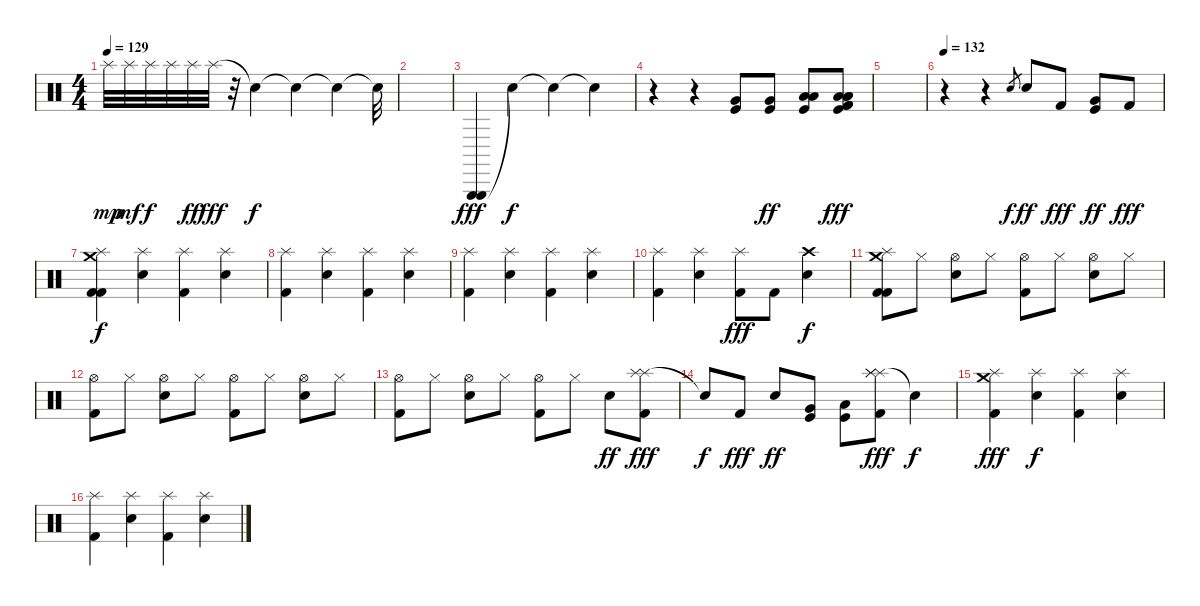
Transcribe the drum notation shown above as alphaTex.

\track "" {instrument percussion}
\staff {score}
\articulation defaults
\ts (4 4)
\tempo 129
\tempo 120
\tempo 129
\clef neutral
\ks c "Splash (hit)".32{dy mp} "Splash (hit)".32{dy mf} "Splash (hit)".32{dy f} "Splash (hit)".32 "Splash (hit)".32{dy ff} "Splash (hit)".32{dy fff}
r.32 "Snare (hit)"{t}.4{dy f} "Snare (hit)"{t}.4 "Snare (hit)"{t}.4 "Snare (hit)"{t}.32 |
|
("Triangle (hit)" "Triangle (hit)").4{dy fff} "Snare (hit)"{t}.4{dy f} "Snare (hit)"{t}.4 "Snare (hit)"{t}.4 |
r.4 r.4 ("Very Low Tom (hit)" "Kick (hit)").8 ("Very Low Tom (hit)" "Kick (hit)").8{dy ff} ("Low Floor Tom (hit)" "Kick (hit)" "Low Floor Tom (hit)").8 ("Low Floor Tom (hit)" "Kick (hit)" "Kick (hit) 2" "Low Floor Tom (hit)" "Low Floor Tom (hit)" "Kick (hit) 2").8{dy fff} |
|
\tempo 132
r.4 r.4 "Electric Snare (hit)".8{gr dy f} "Electric Snare (hit)".8{dy ff} "Kick (hit) 2".8{dy fff} ("Very Low Tom (hit)" "Kick (hit)").8{dy ff} "Kick (hit) 2".8{dy fff} |
("Splash (hit)" "Kick (hit) 2" "Crash medium (hit)" "Kick (hit) 2").4{dy f} ("Splash (hit)" "Electric Snare (hit)").4 ("Splash (hit)" "Kick (hit) 2").4 ("Splash (hit)" "Electric Snare (hit)").4 |
("Splash (hit)" "Kick (hit) 2").4 ("Splash (hit)" "Electric Snare (hit)").4 ("Splash (hit)" "Kick (hit) 2").4 ("Splash (hit)" "Electric Snare (hit)").4 |
("Splash (hit)" "Kick (hit) 2").4 ("Splash (hit)" "Electric Snare (hit)").4 ("Splash (hit)" "Kick (hit) 2").4 ("Splash (hit)" "Electric Snare (hit)").4 |
("Splash (hit)" "Kick (hit) 2").4 ("Splash (hit)" "Electric Snare (hit)").4 ("Splash (hit)" "Kick (hit) 2").8{dy fff} "Kick (hit) 2".8 ("Crash high (hit)" "Electric Snare (hit)").4{dy f} |
("Splash (hit)" "Kick (hit) 2" "Crash medium (hit)" "Kick (hit) 2").8 "Hi-Hat (closed)".8 ("Hi-Hat (open)" "Electric Snare (hit)").8 "Hi-Hat (closed)".8 ("Hi-Hat (open)" "Kick (hit) 2").8 "Hi-Hat (closed)".8 ("Hi-Hat (open)" "Electric Snare (hit)").8 "Hi-Hat (closed)".8 |
("Hi-Hat (open)" "Kick (hit) 2").8 "Hi-Hat (closed)".8 ("Hi-Hat (open)" "Electric Snare (hit)").8 "Hi-Hat (closed)".8 ("Hi-Hat (open)" "Kick (hit) 2").8 "Hi-Hat (closed)".8 ("Hi-Hat (open)" "Electric Snare (hit)").8 "Hi-Hat (closed)".8 |
("Hi-Hat (open)" "Kick (hit) 2").8 "Hi-Hat (closed)".8 ("Hi-Hat (open)" "Electric Snare (hit)").8 "Hi-Hat (closed)".8 ("Hi-Hat (open)" "Kick (hit) 2").8 "Hi-Hat (closed)".8 "Electric Snare (hit)".8{dy ff} ("Splash (hit)" "Kick (hit) 2" "Splash (hit)").8{dy fff} |
"Snare (hit)"{t}.8{dy f} "Kick (hit) 2".8{dy fff} "Electric Snare (hit)".8{dy ff} ("Very Low Tom (hit)" "Kick (hit)").8 ("Low Floor Tom (hit)" "Kick (hit)").8 ("Splash (hit)" "Kick (hit) 2" "Splash (hit)" "Splash (hit)").8{dy fff} "Snare (hit)"{t}.4{dy f} |
("Splash (hit)" "Kick (hit) 2" "Crash medium (hit)").4{dy fff} ("Splash (hit)" "Electric Snare (hit)").4{dy f} ("Splash (hit)" "Kick (hit) 2").4 ("Splash (hit)" "Electric Snare (hit)").4 |
("Splash (hit)" "Kick (hit) 2").4 ("Splash (hit)" "Electric Snare (hit)").4 ("Splash (hit)" "Kick (hit) 2").4 ("Splash (hit)" "Electric Snare (hit)").4
